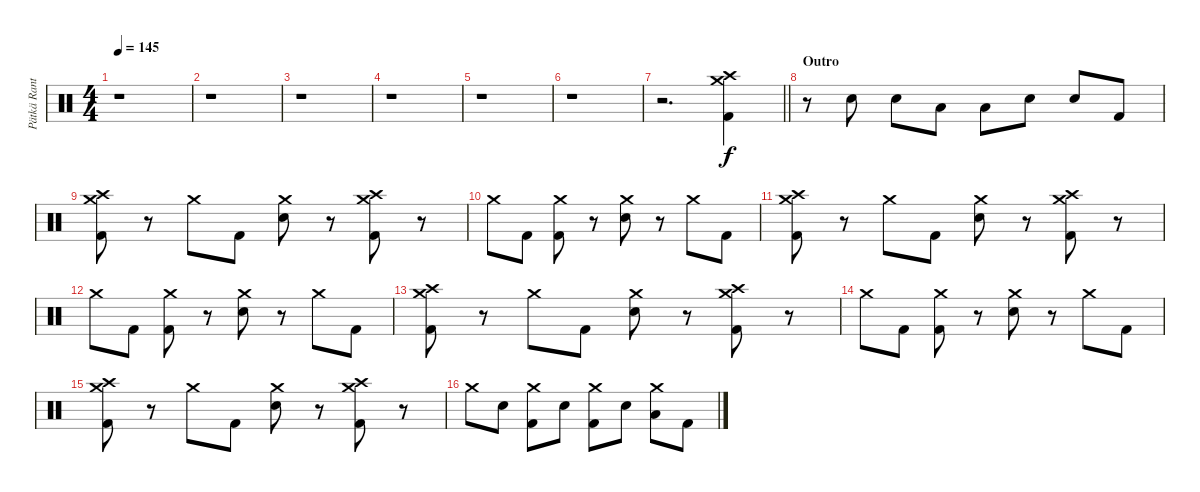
\track ("Pätkä Rantala (Drums)" "Pätkä Rant") {instrument percussion}
\staff {score}
\articulation defaults
\ts (4 4)
\tempo 145
\clef neutral
\ks c
r.1{dy f} |
r.1 |
r.1 |
r.1 |
r.1 |
r.1 |
\barLineRight lightlight
r.2{d} ("Crash high (hit)" "Crash medium (hit)" "Kick (hit) 2").4 |
\section ("" "Outro")
r.8 "Snare (hit) 2".8 "Snare (hit) 2".8 "Low Floor Tom (hit)".8 "Low Floor Tom (hit)".8 "Snare (hit) 2".8 "Snare (hit) 2".8 "Kick (hit) 2".8 |
("Crash high (hit)" "Crash medium (hit)" "Kick (hit) 2").8 r.8 "Crash medium (hit)".8 "Kick (hit) 2".8 ("Crash medium (hit)" "Snare (hit) 2").8 r.8 ("Crash high (hit)" "Crash medium (hit)" "Kick (hit) 2").8 r.8 |
"Crash medium (hit)".8 "Kick (hit) 2".8 ("Crash medium (hit)" "Kick (hit) 2").8 r.8 ("Crash medium (hit)" "Snare (hit) 2").8 r.8 "Crash medium (hit)".8 "Kick (hit) 2".8 |
("Crash high (hit)" "Crash medium (hit)" "Kick (hit) 2").8 r.8 "Crash medium (hit)".8 "Kick (hit) 2".8 ("Crash medium (hit)" "Snare (hit) 2").8 r.8 ("Crash high (hit)" "Crash medium (hit)" "Kick (hit) 2").8 r.8 |
"Crash medium (hit)".8 "Kick (hit) 2".8 ("Crash medium (hit)" "Kick (hit) 2").8 r.8 ("Crash medium (hit)" "Snare (hit) 2").8 r.8 "Crash medium (hit)".8 "Kick (hit) 2".8 |
("Crash high (hit)" "Crash medium (hit)" "Kick (hit) 2").8 r.8 "Crash medium (hit)".8 "Kick (hit) 2".8 ("Crash medium (hit)" "Snare (hit) 2").8 r.8 ("Crash high (hit)" "Crash medium (hit)" "Kick (hit) 2").8 r.8 |
"Crash medium (hit)".8 "Kick (hit) 2".8 ("Crash medium (hit)" "Kick (hit) 2").8 r.8 ("Crash medium (hit)" "Snare (hit) 2").8 r.8 "Crash medium (hit)".8 "Kick (hit) 2".8 |
("Crash high (hit)" "Crash medium (hit)" "Kick (hit) 2").8 r.8 "Crash medium (hit)".8 "Kick (hit) 2".8 ("Crash medium (hit)" "Snare (hit) 2").8 r.8 ("Crash high (hit)" "Crash medium (hit)" "Kick (hit) 2").8 r.8 |
"Crash medium (hit)".8 "Snare (hit) 2".8 ("Crash medium (hit)" "Kick (hit) 2").8 "Snare (hit) 2".8 ("Crash medium (hit)" "Kick (hit) 2").8 "Snare (hit) 2".8 ("Crash medium (hit)" "Low Floor Tom (hit)").8 "Kick (hit) 2".8
